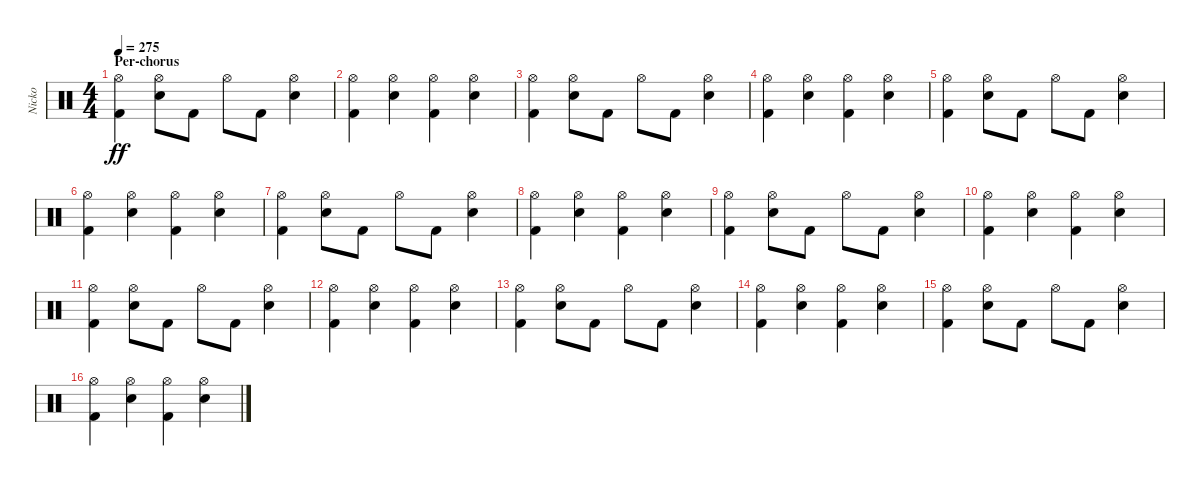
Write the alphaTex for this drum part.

\track ("Nicko" "Nicko") {instrument percussion}
\staff {score}
\articulation defaults
\ts (4 4)
\section ("" "Per-chorus")
\tempo 275
\clef neutral
\ks c
("Kick (hit) 2" "Hi-Hat (open)").4{dy ff} ("Snare (hit) 2" "Hi-Hat (open)").8 "Kick (hit) 2".8 "Hi-Hat (open)".8 "Kick (hit) 2".8 ("Snare (hit) 2" "Hi-Hat (open)").4 |
("Kick (hit) 2" "Hi-Hat (open)").4 ("Snare (hit) 2" "Hi-Hat (open)").4 ("Kick (hit) 2" "Hi-Hat (open)").4 ("Snare (hit) 2" "Hi-Hat (open)").4 |
("Kick (hit) 2" "Hi-Hat (open)").4 ("Snare (hit) 2" "Hi-Hat (open)").8 "Kick (hit) 2".8 "Hi-Hat (open)".8 "Kick (hit) 2".8 ("Snare (hit) 2" "Hi-Hat (open)").4 |
("Kick (hit) 2" "Hi-Hat (open)").4 ("Snare (hit) 2" "Hi-Hat (open)").4 ("Kick (hit) 2" "Hi-Hat (open)").4 ("Snare (hit) 2" "Hi-Hat (open)").4 |
("Kick (hit) 2" "Hi-Hat (open)").4 ("Snare (hit) 2" "Hi-Hat (open)").8 "Kick (hit) 2".8 "Hi-Hat (open)".8 "Kick (hit) 2".8 ("Snare (hit) 2" "Hi-Hat (open)").4 |
("Kick (hit) 2" "Hi-Hat (open)").4 ("Snare (hit) 2" "Hi-Hat (open)").4 ("Kick (hit) 2" "Hi-Hat (open)").4 ("Snare (hit) 2" "Hi-Hat (open)").4 |
("Kick (hit) 2" "Hi-Hat (open)").4 ("Snare (hit) 2" "Hi-Hat (open)").8 "Kick (hit) 2".8 "Hi-Hat (open)".8 "Kick (hit) 2".8 ("Snare (hit) 2" "Hi-Hat (open)").4 |
("Kick (hit) 2" "Hi-Hat (open)").4 ("Snare (hit) 2" "Hi-Hat (open)").4 ("Kick (hit) 2" "Hi-Hat (open)").4 ("Snare (hit) 2" "Hi-Hat (open)").4 |
("Kick (hit) 2" "Hi-Hat (open)").4 ("Snare (hit) 2" "Hi-Hat (open)").8 "Kick (hit) 2".8 "Hi-Hat (open)".8 "Kick (hit) 2".8 ("Snare (hit) 2" "Hi-Hat (open)").4 |
("Kick (hit) 2" "Hi-Hat (open)").4 ("Snare (hit) 2" "Hi-Hat (open)").4 ("Kick (hit) 2" "Hi-Hat (open)").4 ("Snare (hit) 2" "Hi-Hat (open)").4 |
("Kick (hit) 2" "Hi-Hat (open)").4 ("Snare (hit) 2" "Hi-Hat (open)").8 "Kick (hit) 2".8 "Hi-Hat (open)".8 "Kick (hit) 2".8 ("Snare (hit) 2" "Hi-Hat (open)").4 |
("Kick (hit) 2" "Hi-Hat (open)").4 ("Snare (hit) 2" "Hi-Hat (open)").4 ("Kick (hit) 2" "Hi-Hat (open)").4 ("Snare (hit) 2" "Hi-Hat (open)").4 |
("Kick (hit) 2" "Hi-Hat (open)").4 ("Snare (hit) 2" "Hi-Hat (open)").8 "Kick (hit) 2".8 "Hi-Hat (open)".8 "Kick (hit) 2".8 ("Snare (hit) 2" "Hi-Hat (open)").4 |
("Kick (hit) 2" "Hi-Hat (open)").4 ("Snare (hit) 2" "Hi-Hat (open)").4 ("Kick (hit) 2" "Hi-Hat (open)").4 ("Snare (hit) 2" "Hi-Hat (open)").4 |
("Kick (hit) 2" "Hi-Hat (open)").4 ("Snare (hit) 2" "Hi-Hat (open)").8 "Kick (hit) 2".8 "Hi-Hat (open)".8 "Kick (hit) 2".8 ("Snare (hit) 2" "Hi-Hat (open)").4 |
("Kick (hit) 2" "Hi-Hat (open)").4 ("Snare (hit) 2" "Hi-Hat (open)").4 ("Kick (hit) 2" "Hi-Hat (open)").4 ("Snare (hit) 2" "Hi-Hat (open)").4
